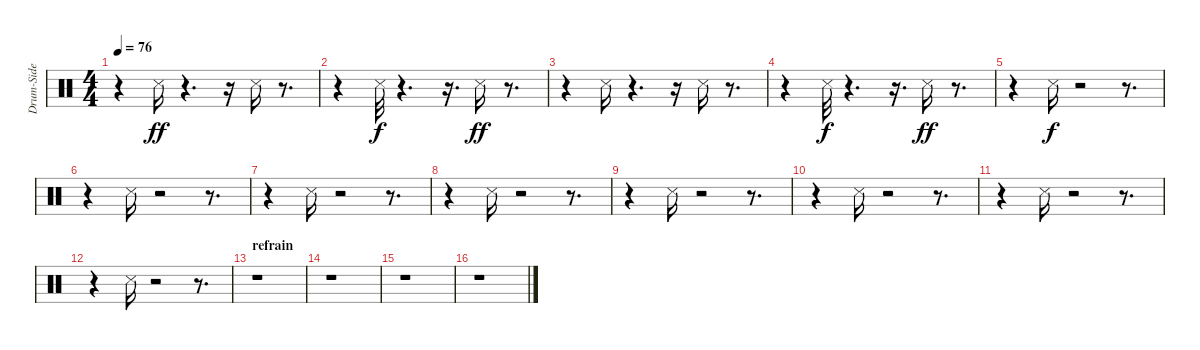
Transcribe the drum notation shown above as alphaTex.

\track ("Drum-Side Stick" "Drum-Side ") {instrument percussion}
\staff {score}
\articulation defaults
\ts (4 4)
\tempo 76
\clef neutral
\ks c
r.4{dy ff} "Snare (side stick) 3".16 r.4{d} r.16 "Snare (side stick) 3".16 r.8{d} |
r.4 "Snare (side stick) 3".32{dy f} r.4{d} r.16{d} "Snare (side stick) 3".16{dy ff} r.8{d} |
r.4 "Snare (side stick) 3".16 r.4{d} r.16 "Snare (side stick) 3".16 r.8{d} |
r.4 "Snare (side stick) 3".32{dy f} r.4{d} r.16{d} "Snare (side stick) 3".16{dy ff} r.8{d} |
r.4 "Snare (side stick) 3".16{dy f} r.2 r.8{d} |
r.4 "Snare (side stick) 3".16 r.2 r.8{d} |
r.4 "Snare (side stick) 3".16 r.2 r.8{d} |
r.4 "Snare (side stick) 3".16 r.2 r.8{d} |
r.4 "Snare (side stick) 3".16 r.2 r.8{d} |
r.4 "Snare (side stick) 3".16 r.2 r.8{d} |
r.4 "Snare (side stick) 3".16 r.2 r.8{d} |
r.4 "Snare (side stick) 3".16 r.2 r.8{d} |
\section ("" "refrain")
r.1 |
r.1 |
r.1 |
r.1
